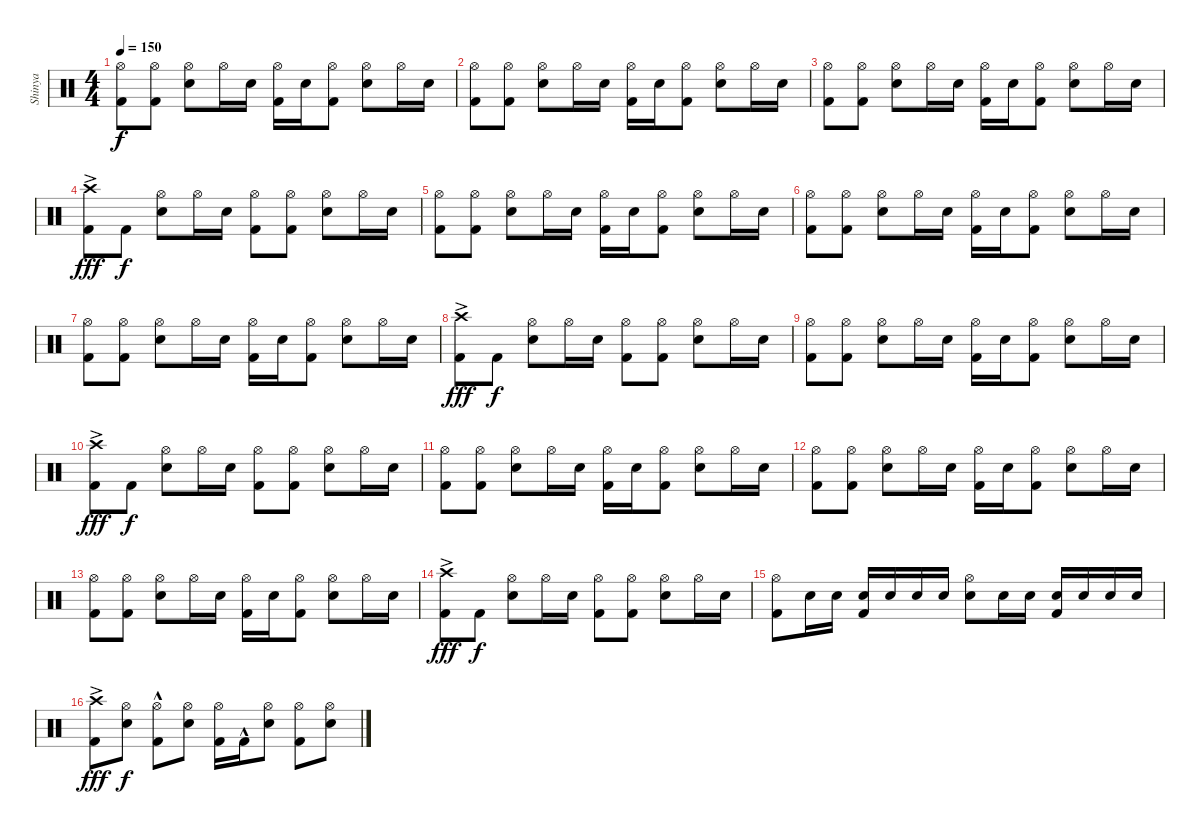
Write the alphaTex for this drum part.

\track ("Shinya" "Shinya") {instrument percussion}
\staff {score}
\articulation defaults
\ts (4 4)
\tempo 150
\clef neutral
\ks c
("Hi-Hat (open)" "Kick (hit) 2").8{dy f} ("Hi-Hat (open)" "Kick (hit) 2").8 ("Hi-Hat (open)" "Snare (hit) 2").8 "Hi-Hat (open)".16 "Snare (hit) 2".16 ("Hi-Hat (open)" "Kick (hit) 2").16 "Snare (hit) 2".16 ("Hi-Hat (open)" "Kick (hit) 2").8 ("Hi-Hat (open)" "Snare (hit) 2").8 "Hi-Hat (open)".16 "Snare (hit) 2".16 |
("Hi-Hat (open)" "Kick (hit) 2").8 ("Hi-Hat (open)" "Kick (hit) 2").8 ("Hi-Hat (open)" "Snare (hit) 2").8 "Hi-Hat (open)".16 "Snare (hit) 2".16 ("Hi-Hat (open)" "Kick (hit) 2").16 "Snare (hit) 2".16 ("Hi-Hat (open)" "Kick (hit) 2").8 ("Hi-Hat (open)" "Snare (hit) 2").8 "Hi-Hat (open)".16 "Snare (hit) 2".16 |
("Hi-Hat (open)" "Kick (hit) 2").8 ("Hi-Hat (open)" "Kick (hit) 2").8 ("Hi-Hat (open)" "Snare (hit) 2").8 "Hi-Hat (open)".16 "Snare (hit) 2".16 ("Hi-Hat (open)" "Kick (hit) 2").16 "Snare (hit) 2".16 ("Hi-Hat (open)" "Kick (hit) 2").8 ("Hi-Hat (open)" "Snare (hit) 2").8 "Hi-Hat (open)".16 "Snare (hit) 2".16 |
("Crash high (hit)"{ac} "Kick (hit) 2").8{dy fff} "Kick (hit) 2".8{dy f} ("Hi-Hat (open)" "Snare (hit) 2").8 "Hi-Hat (open)".16 "Snare (hit) 2".16 ("Hi-Hat (open)" "Kick (hit) 2").8 ("Hi-Hat (open)" "Kick (hit) 2").8 ("Hi-Hat (open)" "Snare (hit) 2").8 "Hi-Hat (open)".16 "Snare (hit) 2".16 |
("Hi-Hat (open)" "Kick (hit) 2").8 ("Hi-Hat (open)" "Kick (hit) 2").8 ("Hi-Hat (open)" "Snare (hit) 2").8 "Hi-Hat (open)".16 "Snare (hit) 2".16 ("Hi-Hat (open)" "Kick (hit) 2").16 "Snare (hit) 2".16 ("Hi-Hat (open)" "Kick (hit) 2").8 ("Hi-Hat (open)" "Snare (hit) 2").8 "Hi-Hat (open)".16 "Snare (hit) 2".16 |
("Hi-Hat (open)" "Kick (hit) 2").8 ("Hi-Hat (open)" "Kick (hit) 2").8 ("Hi-Hat (open)" "Snare (hit) 2").8 "Hi-Hat (open)".16 "Snare (hit) 2".16 ("Hi-Hat (open)" "Kick (hit) 2").16 "Snare (hit) 2".16 ("Hi-Hat (open)" "Kick (hit) 2").8 ("Hi-Hat (open)" "Snare (hit) 2").8 "Hi-Hat (open)".16 "Snare (hit) 2".16 |
("Hi-Hat (open)" "Kick (hit) 2").8 ("Hi-Hat (open)" "Kick (hit) 2").8 ("Hi-Hat (open)" "Snare (hit) 2").8 "Hi-Hat (open)".16 "Snare (hit) 2".16 ("Hi-Hat (open)" "Kick (hit) 2").16 "Snare (hit) 2".16 ("Hi-Hat (open)" "Kick (hit) 2").8 ("Hi-Hat (open)" "Snare (hit) 2").8 "Hi-Hat (open)".16 "Snare (hit) 2".16 |
("Crash high (hit)"{ac} "Kick (hit) 2").8{dy fff} "Kick (hit) 2".8{dy f} ("Hi-Hat (open)" "Snare (hit) 2").8 "Hi-Hat (open)".16 "Snare (hit) 2".16 ("Hi-Hat (open)" "Kick (hit) 2").8 ("Hi-Hat (open)" "Kick (hit) 2").8 ("Hi-Hat (open)" "Snare (hit) 2").8 "Hi-Hat (open)".16 "Snare (hit) 2".16 |
("Hi-Hat (open)" "Kick (hit) 2").8 ("Hi-Hat (open)" "Kick (hit) 2").8 ("Hi-Hat (open)" "Snare (hit) 2").8 "Hi-Hat (open)".16 "Snare (hit) 2".16 ("Hi-Hat (open)" "Kick (hit) 2").16 "Snare (hit) 2".16 ("Hi-Hat (open)" "Kick (hit) 2").8 ("Hi-Hat (open)" "Snare (hit) 2").8 "Hi-Hat (open)".16 "Snare (hit) 2".16 |
("Crash high (hit)"{ac} "Kick (hit) 2").8{dy fff} "Kick (hit) 2".8{dy f} ("Hi-Hat (open)" "Snare (hit) 2").8 "Hi-Hat (open)".16 "Snare (hit) 2".16 ("Hi-Hat (open)" "Kick (hit) 2").8 ("Hi-Hat (open)" "Kick (hit) 2").8 ("Hi-Hat (open)" "Snare (hit) 2").8 "Hi-Hat (open)".16 "Snare (hit) 2".16 |
("Hi-Hat (open)" "Kick (hit) 2").8 ("Hi-Hat (open)" "Kick (hit) 2").8 ("Hi-Hat (open)" "Snare (hit) 2").8 "Hi-Hat (open)".16 "Snare (hit) 2".16 ("Hi-Hat (open)" "Kick (hit) 2").16 "Snare (hit) 2".16 ("Hi-Hat (open)" "Kick (hit) 2").8 ("Hi-Hat (open)" "Snare (hit) 2").8 "Hi-Hat (open)".16 "Snare (hit) 2".16 |
("Hi-Hat (open)" "Kick (hit) 2").8 ("Hi-Hat (open)" "Kick (hit) 2").8 ("Hi-Hat (open)" "Snare (hit) 2").8 "Hi-Hat (open)".16 "Snare (hit) 2".16 ("Hi-Hat (open)" "Kick (hit) 2").16 "Snare (hit) 2".16 ("Hi-Hat (open)" "Kick (hit) 2").8 ("Hi-Hat (open)" "Snare (hit) 2").8 "Hi-Hat (open)".16 "Snare (hit) 2".16 |
("Hi-Hat (open)" "Kick (hit) 2").8 ("Hi-Hat (open)" "Kick (hit) 2").8 ("Hi-Hat (open)" "Snare (hit) 2").8 "Hi-Hat (open)".16 "Snare (hit) 2".16 ("Hi-Hat (open)" "Kick (hit) 2").16 "Snare (hit) 2".16 ("Hi-Hat (open)" "Kick (hit) 2").8 ("Hi-Hat (open)" "Snare (hit) 2").8 "Hi-Hat (open)".16 "Snare (hit) 2".16 |
("Crash high (hit)"{ac} "Kick (hit) 2").8{dy fff} "Kick (hit) 2".8{dy f} ("Hi-Hat (open)" "Snare (hit) 2").8 "Hi-Hat (open)".16 "Snare (hit) 2".16 ("Hi-Hat (open)" "Kick (hit) 2").8 ("Hi-Hat (open)" "Kick (hit) 2").8 ("Hi-Hat (open)" "Snare (hit) 2").8 "Hi-Hat (open)".16 "Snare (hit) 2".16 |
("Hi-Hat (open)" "Kick (hit) 2").8 "Snare (hit) 2".16 "Snare (hit) 2".16 ("Snare (hit) 2" "Kick (hit) 2").16 "Snare (hit) 2".16 "Snare (hit) 2".16 "Snare (hit) 2".16 ("Hi-Hat (open)" "Snare (hit) 2").8 "Snare (hit) 2".16 "Snare (hit) 2".16 ("Snare (hit) 2" "Kick (hit) 2").16 "Snare (hit) 2".16 "Snare (hit) 2".16 "Snare (hit) 2".16 |
("Crash high (hit)"{ac} "Kick (hit) 2").8{dy fff} ("Hi-Hat (open)" "Snare (hit) 2").8{dy f} ("Hi-Hat (open)" "Kick (hit) 2"{hac}).8 ("Hi-Hat (open)" "Snare (hit) 2").8 ("Hi-Hat (open)" "Kick (hit) 2").16 "Kick (hit) 2"{hac}.16 ("Hi-Hat (open)" "Snare (hit) 2").8 ("Hi-Hat (open)" "Kick (hit) 2").8 ("Hi-Hat (open)" "Snare (hit) 2").8
